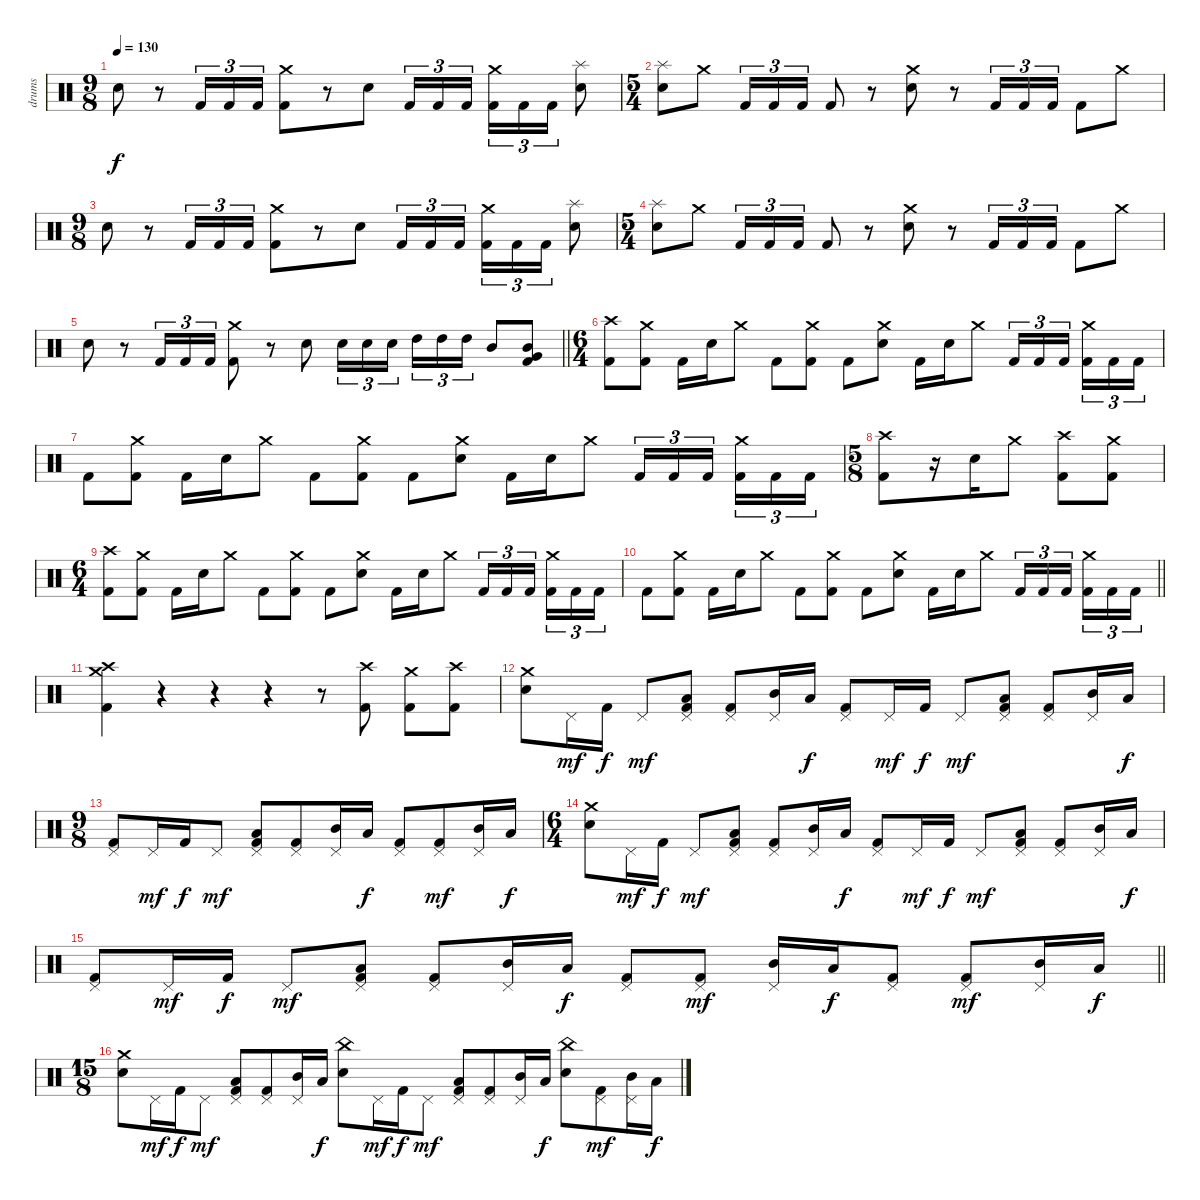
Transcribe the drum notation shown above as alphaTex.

\track ("drums" "drums") {instrument percussion}
\staff {score}
\articulation defaults
\ts (9 8)
\tempo 130
\clef neutral
\ks c "Electric Snare (hit)".8{dy f}
r.8 "Kick (hit) 2".16{tu (3 2)} "Kick (hit) 2".16{tu (3 2)} "Kick (hit) 2".16{tu (3 2)} ("Crash medium (hit)" "Kick (hit) 2").8 r.8 "Electric Snare (hit)".8 "Kick (hit) 2".16{tu (3 2)} "Kick (hit) 2".16{tu (3 2)} "Kick (hit) 2".16{tu (3 2)} ("Crash medium (hit)" "Kick (hit) 2").16{tu (3 2)} "Kick (hit) 2".16{tu (3 2)} "Kick (hit) 2".16{tu (3 2)} ("Splash (hit)" "Electric Snare (hit)").8 |
\ts (5 4)
("Splash (hit)" "Electric Snare (hit)").8 "Crash medium (hit)".8 "Kick (hit) 2".16{tu (3 2)} "Kick (hit) 2".16{tu (3 2)} "Kick (hit) 2".16{tu (3 2)} "Kick (hit) 2".8 r.8 ("Crash medium (hit)" "Electric Snare (hit)").8 r.8 "Kick (hit) 2".16{tu (3 2)} "Kick (hit) 2".16{tu (3 2)} "Kick (hit) 2".16{tu (3 2)} "Kick (hit) 2".8 "Crash medium (hit)".8 |
\ts (9 8)
"Electric Snare (hit)".8 r.8 "Kick (hit) 2".16{tu (3 2)} "Kick (hit) 2".16{tu (3 2)} "Kick (hit) 2".16{tu (3 2)} ("Crash medium (hit)" "Kick (hit) 2").8 r.8 "Electric Snare (hit)".8 "Kick (hit) 2".16{tu (3 2)} "Kick (hit) 2".16{tu (3 2)} "Kick (hit) 2".16{tu (3 2)} ("Crash medium (hit)" "Kick (hit) 2").16{tu (3 2)} "Kick (hit) 2".16{tu (3 2)} "Kick (hit) 2".16{tu (3 2)} ("Splash (hit)" "Electric Snare (hit)").8 |
\ts (5 4)
("Splash (hit)" "Electric Snare (hit)").8 "Crash medium (hit)".8 "Kick (hit) 2".16{tu (3 2)} "Kick (hit) 2".16{tu (3 2)} "Kick (hit) 2".16{tu (3 2)} "Kick (hit) 2".8 r.8 ("Crash medium (hit)" "Electric Snare (hit)").8 r.8 "Kick (hit) 2".16{tu (3 2)} "Kick (hit) 2".16{tu (3 2)} "Kick (hit) 2".16{tu (3 2)} "Kick (hit) 2".8 "Crash medium (hit)".8 |
\barLineRight lightlight "Electric Snare (hit)".8
r.8 "Kick (hit) 2".16{tu (3 2)} "Kick (hit) 2".16{tu (3 2)} "Kick (hit) 2".16{tu (3 2)} ("Crash medium (hit)" "Kick (hit) 2").8 r.8 "Electric Snare (hit)".8 "Electric Snare (hit)".16{tu (3 2)} "Electric Snare (hit)".16{tu (3 2)} "Electric Snare (hit)".16{tu (3 2)} "High Tom (hit)".16{tu (3 2)} "High Tom (hit)".16{tu (3 2)} "High Tom (hit)".16{tu (3 2)} "Mid Tom (hit)".8 ("Mid Tom (hit)" "Very Low Tom (hit)" "Kick (hit) 2").8 |
\ts (6 4)
\section ("" "")
("Crash high (hit)" "Kick (hit) 2").8 ("Crash medium (hit)" "Kick (hit) 2").8 "Kick (hit) 2".16 "Electric Snare (hit)".16 "Crash medium (hit)".8 "Kick (hit) 2".8 ("Crash medium (hit)" "Kick (hit) 2").8 "Kick (hit) 2".8 ("Crash medium (hit)" "Electric Snare (hit)").8 "Kick (hit) 2".16 "Electric Snare (hit)".16 "Crash medium (hit)".8 "Kick (hit) 2".16{tu (3 2)} "Kick (hit) 2".16{tu (3 2)} "Kick (hit) 2".16{tu (3 2)} ("Crash medium (hit)" "Kick (hit) 2").16{tu (3 2)} "Kick (hit) 2".16{tu (3 2)} "Kick (hit) 2".16{tu (3 2)} |
"Kick (hit) 2".8 ("Crash medium (hit)" "Kick (hit) 2").8 "Kick (hit) 2".16 "Electric Snare (hit)".16 "Crash medium (hit)".8 "Kick (hit) 2".8 ("Crash medium (hit)" "Kick (hit) 2").8 "Kick (hit) 2".8 ("Crash medium (hit)" "Electric Snare (hit)").8 "Kick (hit) 2".16 "Electric Snare (hit)".16 "Crash medium (hit)".8 "Kick (hit) 2".16{tu (3 2)} "Kick (hit) 2".16{tu (3 2)} "Kick (hit) 2".16{tu (3 2)} ("Crash medium (hit)" "Kick (hit) 2").16{tu (3 2)} "Kick (hit) 2".16{tu (3 2)} "Kick (hit) 2".16{tu (3 2)} |
\ts (5 8)
("Crash high (hit)" "Kick (hit) 2").8 r.16 "Electric Snare (hit)".16 "Crash medium (hit)".8 ("Crash high (hit)" "Kick (hit) 2").8 ("Crash medium (hit)" "Kick (hit) 2").8 |
\ts (6 4)
("Crash high (hit)" "Kick (hit) 2").8 ("Crash medium (hit)" "Kick (hit) 2").8 "Kick (hit) 2".16 "Electric Snare (hit)".16 "Crash medium (hit)".8 "Kick (hit) 2".8 ("Crash medium (hit)" "Kick (hit) 2").8 "Kick (hit) 2".8 ("Crash medium (hit)" "Electric Snare (hit)").8 "Kick (hit) 2".16 "Electric Snare (hit)".16 "Crash medium (hit)".8 "Kick (hit) 2".16{tu (3 2)} "Kick (hit) 2".16{tu (3 2)} "Kick (hit) 2".16{tu (3 2)} ("Crash medium (hit)" "Kick (hit) 2").16{tu (3 2)} "Kick (hit) 2".16{tu (3 2)} "Kick (hit) 2".16{tu (3 2)} |
\barLineRight lightlight "Kick (hit) 2".8
("Crash medium (hit)" "Kick (hit) 2").8 "Kick (hit) 2".16 "Electric Snare (hit)".16 "Crash medium (hit)".8 "Kick (hit) 2".8 ("Crash medium (hit)" "Kick (hit) 2").8 "Kick (hit) 2".8 ("Crash medium (hit)" "Electric Snare (hit)").8 "Kick (hit) 2".16 "Electric Snare (hit)".16 "Crash medium (hit)".8 "Kick (hit) 2".16{tu (3 2)} "Kick (hit) 2".16{tu (3 2)} "Kick (hit) 2".16{tu (3 2)} ("Crash medium (hit)" "Kick (hit) 2").16{tu (3 2)} "Kick (hit) 2".16{tu (3 2)} "Kick (hit) 2".16{tu (3 2)} |
("Crash high (hit)" "Crash medium (hit)" "Kick (hit) 2").4 r.4 r.4 r.4 r.8 ("Crash high (hit)" "Kick (hit) 2").8 ("Crash medium (hit)" "Kick (hit) 2").8 ("Crash high (hit)" "Kick (hit) 2").8 |
\section ("" "")
("Crash medium (hit)" "Electric Snare (hit)").8 "Pedal Hi-Hat (hit)".16{dy mf} "Kick (hit) 2".16{dy f} "Pedal Hi-Hat (hit)".8{dy mf} ("Pedal Hi-Hat (hit)" "Low Floor Tom (hit)" "Kick (hit) 2").8 ("Pedal Hi-Hat (hit)" "Kick (hit) 2").8 ("Pedal Hi-Hat (hit)" "Mid Tom (hit)").16 "Low Tom (hit)".16{dy f} ("Pedal Hi-Hat (hit)" "Kick (hit) 2").8 "Pedal Hi-Hat (hit)".16{dy mf} "Kick (hit) 2".16{dy f} "Pedal Hi-Hat (hit)".8{dy mf} ("Pedal Hi-Hat (hit)" "Low Floor Tom (hit)" "Kick (hit) 2").8 ("Pedal Hi-Hat (hit)" "Kick (hit) 2").8 ("Pedal Hi-Hat (hit)" "Mid Tom (hit)").16 "Low Tom (hit)".16{dy f} |
\ts (9 8)
("Pedal Hi-Hat (hit)" "Kick (hit) 2").8 "Pedal Hi-Hat (hit)".16{dy mf} "Kick (hit) 2".16{dy f} "Pedal Hi-Hat (hit)".8{dy mf} ("Pedal Hi-Hat (hit)" "Low Floor Tom (hit)" "Kick (hit) 2").8 ("Pedal Hi-Hat (hit)" "Kick (hit) 2").8 ("Pedal Hi-Hat (hit)" "Mid Tom (hit)").16 "Low Tom (hit)".16{dy f} ("Pedal Hi-Hat (hit)" "Kick (hit) 2").8 ("Pedal Hi-Hat (hit)" "Kick (hit) 2").8{dy mf} ("Pedal Hi-Hat (hit)" "Mid Tom (hit)").16 "Low Tom (hit)".16{dy f} |
\ts (6 4)
("Crash medium (hit)" "Electric Snare (hit)").8 "Pedal Hi-Hat (hit)".16{dy mf} "Kick (hit) 2".16{dy f} "Pedal Hi-Hat (hit)".8{dy mf} ("Pedal Hi-Hat (hit)" "Low Floor Tom (hit)" "Kick (hit) 2").8 ("Pedal Hi-Hat (hit)" "Kick (hit) 2").8 ("Pedal Hi-Hat (hit)" "Mid Tom (hit)").16 "Low Tom (hit)".16{dy f} ("Pedal Hi-Hat (hit)" "Kick (hit) 2").8 "Pedal Hi-Hat (hit)".16{dy mf} "Kick (hit) 2".16{dy f} "Pedal Hi-Hat (hit)".8{dy mf} ("Pedal Hi-Hat (hit)" "Low Floor Tom (hit)" "Kick (hit) 2").8 ("Pedal Hi-Hat (hit)" "Kick (hit) 2").8 ("Pedal Hi-Hat (hit)" "Mid Tom (hit)").16 "Low Tom (hit)".16{dy f} |
\barLineRight lightlight
("Pedal Hi-Hat (hit)" "Kick (hit) 2").8 "Pedal Hi-Hat (hit)".16{dy mf} "Kick (hit) 2".16{dy f} "Pedal Hi-Hat (hit)".8{dy mf} ("Pedal Hi-Hat (hit)" "Low Floor Tom (hit)" "Kick (hit) 2").8 ("Pedal Hi-Hat (hit)" "Kick (hit) 2").8 ("Pedal Hi-Hat (hit)" "Mid Tom (hit)").16 "Low Tom (hit)".16{dy f} ("Pedal Hi-Hat (hit)" "Kick (hit) 2").8 ("Pedal Hi-Hat (hit)" "Kick (hit) 2").8{dy mf} ("Pedal Hi-Hat (hit)" "Mid Tom (hit)").16 "Low Tom (hit)".16{dy f} ("Pedal Hi-Hat (hit)" "Kick (hit) 2").8 ("Pedal Hi-Hat (hit)" "Kick (hit) 2").8{dy mf} ("Pedal Hi-Hat (hit)" "Mid Tom (hit)").16 "Low Tom (hit)".16{dy f} |
\ts (15 8)
("Crash medium (hit)" "Electric Snare (hit)").8 "Pedal Hi-Hat (hit)".16{dy mf} "Kick (hit) 2".16{dy f} "Pedal Hi-Hat (hit)".8{dy mf} ("Pedal Hi-Hat (hit)" "Low Floor Tom (hit)" "Kick (hit) 2").8 ("Pedal Hi-Hat (hit)" "Kick (hit) 2").8 ("Pedal Hi-Hat (hit)" "Mid Tom (hit)").16 "Low Tom (hit)".16{dy f} ("China (hit)" "Electric Snare (hit)").8 "Pedal Hi-Hat (hit)".16{dy mf} "Kick (hit) 2".16{dy f} "Pedal Hi-Hat (hit)".8{dy mf} ("Pedal Hi-Hat (hit)" "Low Floor Tom (hit)" "Kick (hit) 2").8 ("Pedal Hi-Hat (hit)" "Kick (hit) 2").8 ("Pedal Hi-Hat (hit)" "Mid Tom (hit)").16 "Low Tom (hit)".16{dy f} ("China (hit)" "Electric Snare (hit)").8 ("Pedal Hi-Hat (hit)" "Kick (hit) 2").8{dy mf} ("Pedal Hi-Hat (hit)" "Mid Tom (hit)").16 "Low Tom (hit)".16{dy f}
